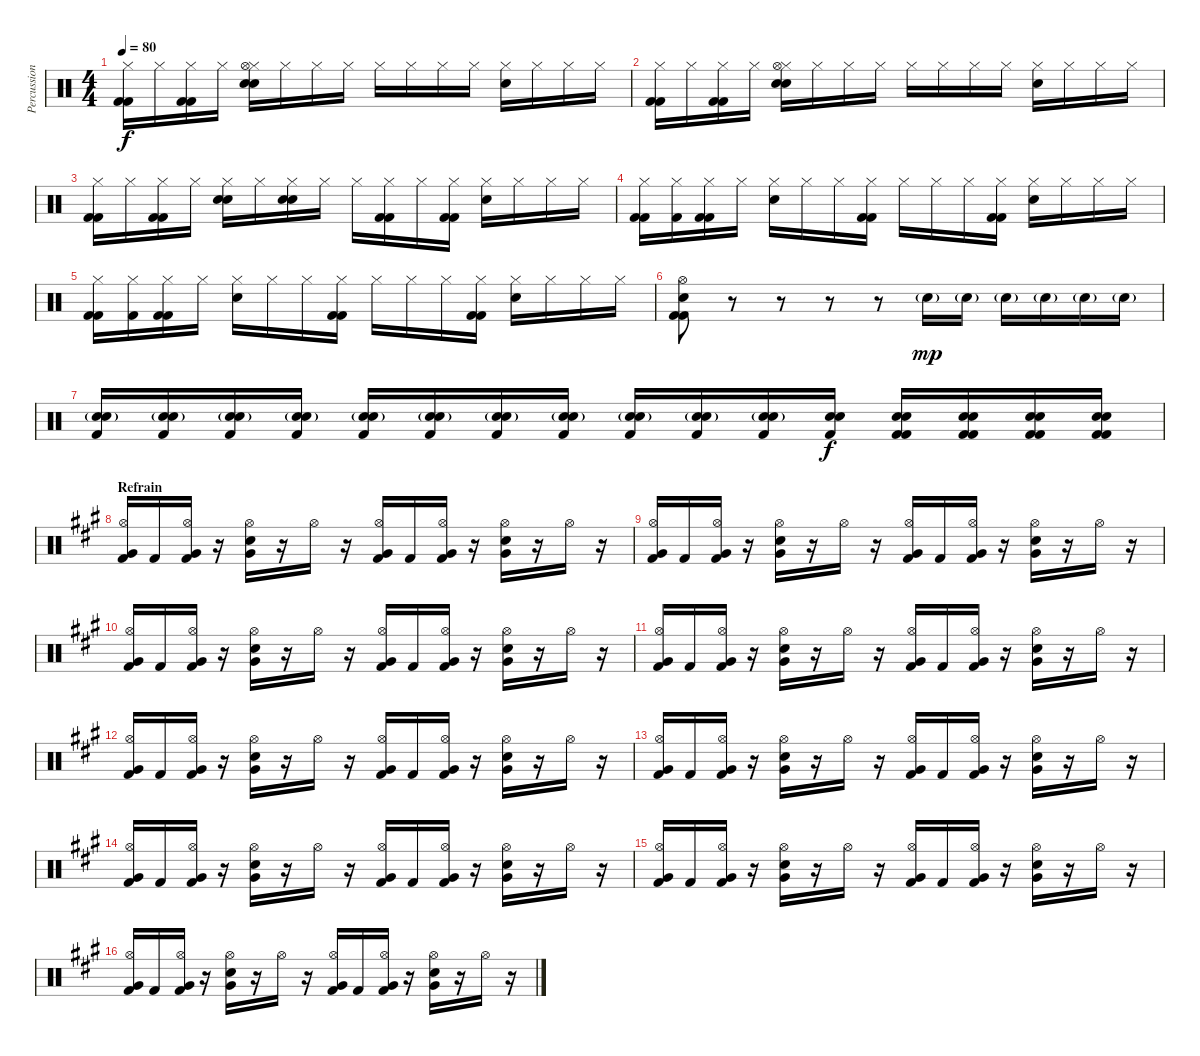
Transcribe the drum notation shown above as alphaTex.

\track ("Percussions" "Percussion") {instrument percussion}
\staff {score}
\articulation defaults
\ts (4 4)
\tempo 80
\clef neutral
\ks c
("Hi-Hat (closed)" "Kick (hit) 2" "Kick (hit) 2").16{dy f} "Hi-Hat (closed)".16 ("Hi-Hat (closed)" "Kick (hit) 2" "Kick (hit) 2").16 "Hi-Hat (closed)".16 ("Electric Snare (hit)" "Hi-Hat (closed)" "Electric Snare (hit)" "Hi-Hat (open)").16 "Hi-Hat (closed)".16 "Hi-Hat (closed)".16 "Hi-Hat (closed)".16 "Hi-Hat (closed)".16 "Hi-Hat (closed)".16 "Hi-Hat (closed)".16 "Hi-Hat (closed)".16 ("Electric Snare (hit)" "Hi-Hat (closed)").16 "Hi-Hat (closed)".16 "Hi-Hat (closed)".16 "Hi-Hat (closed)".16 |
("Hi-Hat (closed)" "Kick (hit) 2" "Kick (hit) 2").16 "Hi-Hat (closed)".16 ("Hi-Hat (closed)" "Kick (hit) 2" "Kick (hit) 2").16 "Hi-Hat (closed)".16 ("Electric Snare (hit)" "Hi-Hat (closed)" "Electric Snare (hit)" "Hi-Hat (open)").16 "Hi-Hat (closed)".16 "Hi-Hat (closed)".16 "Hi-Hat (closed)".16 "Hi-Hat (closed)".16 "Hi-Hat (closed)".16 "Hi-Hat (closed)".16 "Hi-Hat (closed)".16 ("Electric Snare (hit)" "Hi-Hat (closed)").16 "Hi-Hat (closed)".16 "Hi-Hat (closed)".16 "Hi-Hat (closed)".16 |
("Hi-Hat (closed)" "Kick (hit) 2" "Kick (hit) 2").16 "Hi-Hat (closed)".16 ("Hi-Hat (closed)" "Kick (hit) 2" "Kick (hit) 2").16 "Hi-Hat (closed)".16 ("Electric Snare (hit)" "Hi-Hat (closed)" "Electric Snare (hit)").16 "Hi-Hat (closed)".16 ("Electric Snare (hit)" "Hi-Hat (closed)" "Electric Snare (hit)").16 "Hi-Hat (closed)".16 "Hi-Hat (closed)".16 ("Hi-Hat (closed)" "Kick (hit) 2" "Kick (hit) 2").16 "Hi-Hat (closed)".16 ("Hi-Hat (closed)" "Kick (hit) 2" "Kick (hit) 2").16 ("Electric Snare (hit)" "Hi-Hat (closed)").16 "Hi-Hat (closed)".16 "Hi-Hat (closed)".16 "Hi-Hat (closed)".16 |
("Hi-Hat (closed)" "Kick (hit) 2" "Kick (hit) 2").16 ("Hi-Hat (closed)" "Kick (hit) 2").16 ("Hi-Hat (closed)" "Kick (hit) 2" "Kick (hit) 2").16 "Hi-Hat (closed)".16 ("Electric Snare (hit)" "Hi-Hat (closed)").16 "Hi-Hat (closed)".16 "Hi-Hat (closed)".16 ("Hi-Hat (closed)" "Kick (hit) 2" "Kick (hit) 2").16 "Hi-Hat (closed)".16 "Hi-Hat (closed)".16 "Hi-Hat (closed)".16 ("Hi-Hat (closed)" "Kick (hit) 2" "Kick (hit) 2").16 ("Electric Snare (hit)" "Hi-Hat (closed)").16 "Hi-Hat (closed)".16 "Hi-Hat (closed)".16 "Hi-Hat (closed)".16 |
("Hi-Hat (closed)" "Kick (hit) 2" "Kick (hit) 2").16 ("Hi-Hat (closed)" "Kick (hit) 2").16 ("Hi-Hat (closed)" "Kick (hit) 2" "Kick (hit) 2").16 "Hi-Hat (closed)".16 ("Electric Snare (hit)" "Hi-Hat (closed)").16 "Hi-Hat (closed)".16 "Hi-Hat (closed)".16 ("Hi-Hat (closed)" "Kick (hit) 2" "Kick (hit) 2").16 "Hi-Hat (closed)".16 "Hi-Hat (closed)".16 "Hi-Hat (closed)".16 ("Hi-Hat (closed)" "Kick (hit) 2" "Kick (hit) 2").16 ("Electric Snare (hit)" "Hi-Hat (closed)").16 "Hi-Hat (closed)".16 "Hi-Hat (closed)".16 "Hi-Hat (closed)".16 |
("Electric Snare (hit)" "Hi-Hat (open)" "Kick (hit) 2" "Kick (hit) 2").8 r.8 r.8 r.8 r.8 "Electric Snare (hit)"{g}.16{dy mp} "Electric Snare (hit)"{g}.16 "Electric Snare (hit)"{g}.16 "Electric Snare (hit)"{g}.16 "Electric Snare (hit)"{g}.16 "Electric Snare (hit)"{g}.16 |
("Electric Snare (hit)"{g} "Electric Snare (hit)"{g} "Kick (hit) 2").16 ("Electric Snare (hit)"{g} "Electric Snare (hit)"{g} "Kick (hit) 2").16 ("Electric Snare (hit)"{g} "Electric Snare (hit)"{g} "Kick (hit) 2").16 ("Electric Snare (hit)"{g} "Electric Snare (hit)"{g} "Kick (hit) 2").16 ("Electric Snare (hit)"{g} "Electric Snare (hit)"{g} "Kick (hit) 2").16 ("Electric Snare (hit)"{g} "Electric Snare (hit)"{g} "Kick (hit) 2").16 ("Electric Snare (hit)"{g} "Electric Snare (hit)" "Kick (hit) 2").16 ("Electric Snare (hit)"{g} "Electric Snare (hit)" "Kick (hit) 2").16 ("Electric Snare (hit)"{g} "Electric Snare (hit)" "Kick (hit) 2").16 ("Electric Snare (hit)"{g} "Electric Snare (hit)" "Kick (hit) 2").16 ("Electric Snare (hit)"{g} "Electric Snare (hit)" "Kick (hit) 2").16 ("Electric Snare (hit)" "Electric Snare (hit)" "Kick (hit) 2").16{dy f} ("Electric Snare (hit)" "Electric Snare (hit)" "Kick (hit) 2" "Kick (hit) 2").16 ("Electric Snare (hit)" "Electric Snare (hit)" "Kick (hit) 2" "Kick (hit) 2").16 ("Electric Snare (hit)" "Electric Snare (hit)" "Kick (hit) 2" "Kick (hit) 2").16 ("Electric Snare (hit)" "Electric Snare (hit)" "Kick (hit) 2" "Kick (hit) 2").16 |
\section ("" "Refrain")
\ks a
("Hi-Hat (open)" "Kick (hit) 2" "Very Low Tom (hit)").16 "Kick (hit) 2".16 ("Hi-Hat (open)" "Kick (hit) 2" "Very Low Tom (hit)").16 r.16 ("Hi-Hat (open)" "Electric Snare (hit)" "Very Low Tom (hit)").16 r.16 "Hi-Hat (open)".16 r.16 ("Hi-Hat (open)" "Kick (hit) 2" "Very Low Tom (hit)").16 "Kick (hit) 2".16 ("Hi-Hat (open)" "Kick (hit) 2" "Very Low Tom (hit)").16 r.16 ("Hi-Hat (open)" "Electric Snare (hit)" "Very Low Tom (hit)").16 r.16 "Hi-Hat (open)".16 r.16 |
("Hi-Hat (open)" "Kick (hit) 2" "Very Low Tom (hit)").16 "Kick (hit) 2".16 ("Hi-Hat (open)" "Kick (hit) 2" "Very Low Tom (hit)").16 r.16 ("Hi-Hat (open)" "Electric Snare (hit)" "Very Low Tom (hit)").16 r.16 "Hi-Hat (open)".16 r.16 ("Hi-Hat (open)" "Kick (hit) 2" "Very Low Tom (hit)").16 "Kick (hit) 2".16 ("Hi-Hat (open)" "Kick (hit) 2" "Very Low Tom (hit)").16 r.16 ("Hi-Hat (open)" "Electric Snare (hit)" "Very Low Tom (hit)").16 r.16 "Hi-Hat (open)".16 r.16 |
("Hi-Hat (open)" "Kick (hit) 2" "Very Low Tom (hit)").16 "Kick (hit) 2".16 ("Hi-Hat (open)" "Kick (hit) 2" "Very Low Tom (hit)").16 r.16 ("Hi-Hat (open)" "Electric Snare (hit)" "Very Low Tom (hit)").16 r.16 "Hi-Hat (open)".16 r.16 ("Hi-Hat (open)" "Kick (hit) 2" "Very Low Tom (hit)").16 "Kick (hit) 2".16 ("Hi-Hat (open)" "Kick (hit) 2" "Very Low Tom (hit)").16 r.16 ("Hi-Hat (open)" "Electric Snare (hit)" "Very Low Tom (hit)").16 r.16 "Hi-Hat (open)".16 r.16 |
("Hi-Hat (open)" "Kick (hit) 2" "Very Low Tom (hit)").16 "Kick (hit) 2".16 ("Hi-Hat (open)" "Kick (hit) 2" "Very Low Tom (hit)").16 r.16 ("Hi-Hat (open)" "Electric Snare (hit)" "Very Low Tom (hit)").16 r.16 "Hi-Hat (open)".16 r.16 ("Hi-Hat (open)" "Kick (hit) 2" "Very Low Tom (hit)").16 "Kick (hit) 2".16 ("Hi-Hat (open)" "Kick (hit) 2" "Very Low Tom (hit)").16 r.16 ("Hi-Hat (open)" "Electric Snare (hit)" "Very Low Tom (hit)").16 r.16 "Hi-Hat (open)".16 r.16 |
("Hi-Hat (open)" "Kick (hit) 2" "Very Low Tom (hit)").16 "Kick (hit) 2".16 ("Hi-Hat (open)" "Kick (hit) 2" "Very Low Tom (hit)").16 r.16 ("Hi-Hat (open)" "Electric Snare (hit)" "Very Low Tom (hit)").16 r.16 "Hi-Hat (open)".16 r.16 ("Hi-Hat (open)" "Kick (hit) 2" "Very Low Tom (hit)").16 "Kick (hit) 2".16 ("Hi-Hat (open)" "Kick (hit) 2" "Very Low Tom (hit)").16 r.16 ("Hi-Hat (open)" "Electric Snare (hit)" "Very Low Tom (hit)").16 r.16 "Hi-Hat (open)".16 r.16 |
("Hi-Hat (open)" "Kick (hit) 2" "Very Low Tom (hit)").16 "Kick (hit) 2".16 ("Hi-Hat (open)" "Kick (hit) 2" "Very Low Tom (hit)").16 r.16 ("Hi-Hat (open)" "Electric Snare (hit)" "Very Low Tom (hit)").16 r.16 "Hi-Hat (open)".16 r.16 ("Hi-Hat (open)" "Kick (hit) 2" "Very Low Tom (hit)").16 "Kick (hit) 2".16 ("Hi-Hat (open)" "Kick (hit) 2" "Very Low Tom (hit)").16 r.16 ("Hi-Hat (open)" "Electric Snare (hit)" "Very Low Tom (hit)").16 r.16 "Hi-Hat (open)".16 r.16 |
("Hi-Hat (open)" "Kick (hit) 2" "Very Low Tom (hit)").16 "Kick (hit) 2".16 ("Hi-Hat (open)" "Kick (hit) 2" "Very Low Tom (hit)").16 r.16 ("Hi-Hat (open)" "Electric Snare (hit)" "Very Low Tom (hit)").16 r.16 "Hi-Hat (open)".16 r.16 ("Hi-Hat (open)" "Kick (hit) 2" "Very Low Tom (hit)").16 "Kick (hit) 2".16 ("Hi-Hat (open)" "Kick (hit) 2" "Very Low Tom (hit)").16 r.16 ("Hi-Hat (open)" "Electric Snare (hit)" "Very Low Tom (hit)").16 r.16 "Hi-Hat (open)".16 r.16 |
("Hi-Hat (open)" "Kick (hit) 2" "Very Low Tom (hit)").16 "Kick (hit) 2".16 ("Hi-Hat (open)" "Kick (hit) 2" "Very Low Tom (hit)").16 r.16 ("Hi-Hat (open)" "Electric Snare (hit)" "Very Low Tom (hit)").16 r.16 "Hi-Hat (open)".16 r.16 ("Hi-Hat (open)" "Kick (hit) 2" "Very Low Tom (hit)").16 "Kick (hit) 2".16 ("Hi-Hat (open)" "Kick (hit) 2" "Very Low Tom (hit)").16 r.16 ("Hi-Hat (open)" "Electric Snare (hit)" "Very Low Tom (hit)").16 r.16 "Hi-Hat (open)".16 r.16 |
("Hi-Hat (open)" "Kick (hit) 2" "Very Low Tom (hit)").16 "Kick (hit) 2".16 ("Hi-Hat (open)" "Kick (hit) 2" "Very Low Tom (hit)").16 r.16 ("Hi-Hat (open)" "Electric Snare (hit)" "Very Low Tom (hit)").16 r.16 "Hi-Hat (open)".16 r.16 ("Hi-Hat (open)" "Kick (hit) 2" "Very Low Tom (hit)").16 "Kick (hit) 2".16 ("Hi-Hat (open)" "Kick (hit) 2" "Very Low Tom (hit)").16 r.16 ("Hi-Hat (open)" "Electric Snare (hit)" "Very Low Tom (hit)").16 r.16 "Hi-Hat (open)".16 r.16
